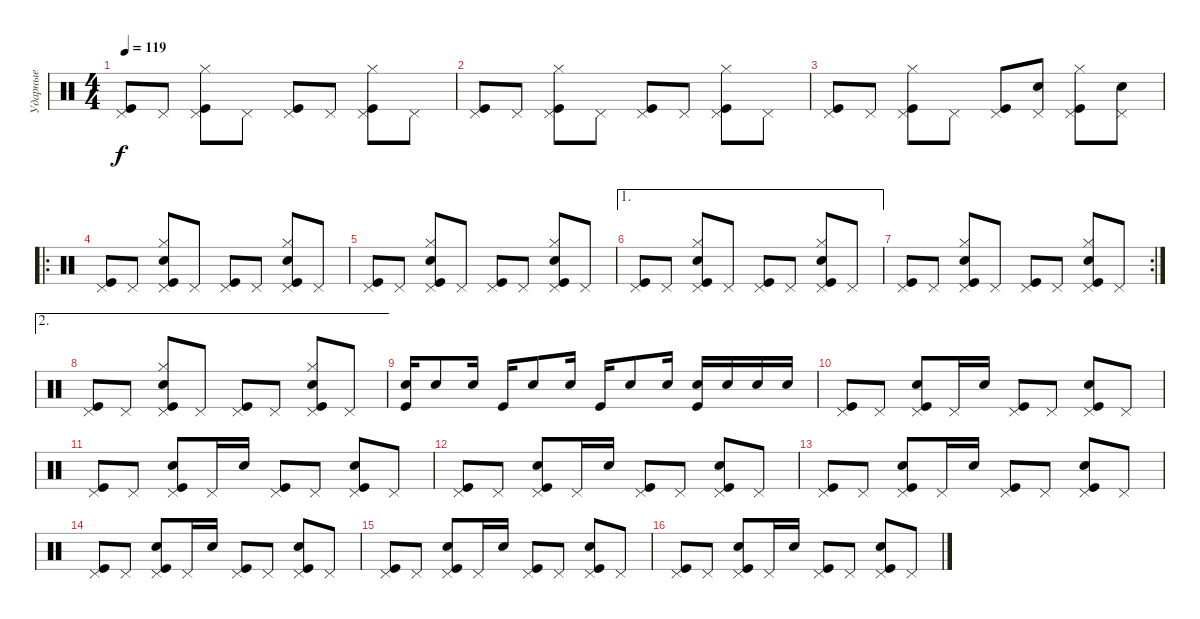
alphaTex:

\track ("Ударные" "Ударные") {instrument percussion}
\staff {score}
\articulation defaults
\ts (4 4)
\tempo 119
\clef neutral
\ks c
("Kick (hit)" "Pedal Hi-Hat (hit)").8{dy f} "Pedal Hi-Hat (hit)".8 ("Kick (hit)" "Pedal Hi-Hat (hit)" "Hi-Hat (closed)").8 "Pedal Hi-Hat (hit)".8 ("Kick (hit)" "Pedal Hi-Hat (hit)").8 "Pedal Hi-Hat (hit)".8 ("Kick (hit)" "Pedal Hi-Hat (hit)" "Hi-Hat (closed)").8 "Pedal Hi-Hat (hit)".8 |
("Kick (hit)" "Pedal Hi-Hat (hit)").8 "Pedal Hi-Hat (hit)".8 ("Kick (hit)" "Pedal Hi-Hat (hit)" "Hi-Hat (closed)").8 "Pedal Hi-Hat (hit)".8 ("Kick (hit)" "Pedal Hi-Hat (hit)").8 "Pedal Hi-Hat (hit)".8 ("Kick (hit)" "Pedal Hi-Hat (hit)" "Hi-Hat (closed)").8 "Pedal Hi-Hat (hit)".8 |
("Kick (hit)" "Pedal Hi-Hat (hit)").8 "Pedal Hi-Hat (hit)".8 ("Kick (hit)" "Pedal Hi-Hat (hit)" "Hi-Hat (closed)").8 "Pedal Hi-Hat (hit)".8 ("Kick (hit)" "Pedal Hi-Hat (hit)").8 ("Pedal Hi-Hat (hit)" "Electric Snare (hit)").8 ("Kick (hit)" "Pedal Hi-Hat (hit)" "Hi-Hat (closed)").8 ("Pedal Hi-Hat (hit)" "Electric Snare (hit)").8 |
\ro
("Kick (hit)" "Pedal Hi-Hat (hit)").8 "Pedal Hi-Hat (hit)".8 ("Kick (hit)" "Pedal Hi-Hat (hit)" "Electric Snare (hit)" "Hi-Hat (closed)").8 "Pedal Hi-Hat (hit)".8 ("Kick (hit)" "Pedal Hi-Hat (hit)").8 "Pedal Hi-Hat (hit)".8 ("Kick (hit)" "Pedal Hi-Hat (hit)" "Electric Snare (hit)" "Hi-Hat (closed)").8 "Pedal Hi-Hat (hit)".8 |
("Kick (hit)" "Pedal Hi-Hat (hit)").8 "Pedal Hi-Hat (hit)".8 ("Kick (hit)" "Pedal Hi-Hat (hit)" "Electric Snare (hit)" "Hi-Hat (closed)").8 "Pedal Hi-Hat (hit)".8 ("Kick (hit)" "Pedal Hi-Hat (hit)").8 "Pedal Hi-Hat (hit)".8 ("Kick (hit)" "Pedal Hi-Hat (hit)" "Electric Snare (hit)" "Hi-Hat (closed)").8 "Pedal Hi-Hat (hit)".8 |
\ae 1
("Kick (hit)" "Pedal Hi-Hat (hit)").8 "Pedal Hi-Hat (hit)".8 ("Kick (hit)" "Pedal Hi-Hat (hit)" "Electric Snare (hit)" "Hi-Hat (closed)").8 "Pedal Hi-Hat (hit)".8 ("Kick (hit)" "Pedal Hi-Hat (hit)").8 "Pedal Hi-Hat (hit)".8 ("Kick (hit)" "Pedal Hi-Hat (hit)" "Electric Snare (hit)" "Hi-Hat (closed)").8 "Pedal Hi-Hat (hit)".8 |
\rc 2
("Kick (hit)" "Pedal Hi-Hat (hit)").8 "Pedal Hi-Hat (hit)".8 ("Kick (hit)" "Pedal Hi-Hat (hit)" "Electric Snare (hit)" "Hi-Hat (closed)").8 "Pedal Hi-Hat (hit)".8 ("Kick (hit)" "Pedal Hi-Hat (hit)").8 "Pedal Hi-Hat (hit)".8 ("Kick (hit)" "Pedal Hi-Hat (hit)" "Electric Snare (hit)" "Hi-Hat (closed)").8 "Pedal Hi-Hat (hit)".8 |
\ae 2
("Kick (hit)" "Pedal Hi-Hat (hit)").8 "Pedal Hi-Hat (hit)".8 ("Kick (hit)" "Pedal Hi-Hat (hit)" "Electric Snare (hit)" "Hi-Hat (closed)").8 "Pedal Hi-Hat (hit)".8 ("Kick (hit)" "Pedal Hi-Hat (hit)").8 "Pedal Hi-Hat (hit)".8 ("Kick (hit)" "Pedal Hi-Hat (hit)" "Electric Snare (hit)" "Hi-Hat (closed)").8 "Pedal Hi-Hat (hit)".8 |
("Kick (hit)" "Electric Snare (hit)").16 "Electric Snare (hit)".8 "Electric Snare (hit)".16 "Kick (hit)".16 "Electric Snare (hit)".8 "Electric Snare (hit)".16 "Kick (hit)".16 "Electric Snare (hit)".8 "Electric Snare (hit)".16 ("Kick (hit)" "Electric Snare (hit)").16 "Electric Snare (hit)".16 "Electric Snare (hit)".16 "Electric Snare (hit)".16 |
("Kick (hit)" "Pedal Hi-Hat (hit)").8 "Pedal Hi-Hat (hit)".8 ("Kick (hit)" "Electric Snare (hit)" "Pedal Hi-Hat (hit)").8 "Pedal Hi-Hat (hit)".16 "Electric Snare (hit)".16 ("Kick (hit)" "Pedal Hi-Hat (hit)").8 "Pedal Hi-Hat (hit)".8 ("Kick (hit)" "Electric Snare (hit)" "Pedal Hi-Hat (hit)").8 "Pedal Hi-Hat (hit)".8 |
("Kick (hit)" "Pedal Hi-Hat (hit)").8 "Pedal Hi-Hat (hit)".8 ("Kick (hit)" "Electric Snare (hit)" "Pedal Hi-Hat (hit)").8 "Pedal Hi-Hat (hit)".16 "Electric Snare (hit)".16 ("Kick (hit)" "Pedal Hi-Hat (hit)").8 "Pedal Hi-Hat (hit)".8 ("Kick (hit)" "Electric Snare (hit)" "Pedal Hi-Hat (hit)").8 "Pedal Hi-Hat (hit)".8 |
("Kick (hit)" "Pedal Hi-Hat (hit)").8 "Pedal Hi-Hat (hit)".8 ("Kick (hit)" "Electric Snare (hit)" "Pedal Hi-Hat (hit)").8 "Pedal Hi-Hat (hit)".16 "Electric Snare (hit)".16 ("Kick (hit)" "Pedal Hi-Hat (hit)").8 "Pedal Hi-Hat (hit)".8 ("Kick (hit)" "Electric Snare (hit)" "Pedal Hi-Hat (hit)").8 "Pedal Hi-Hat (hit)".8 |
("Kick (hit)" "Pedal Hi-Hat (hit)").8 "Pedal Hi-Hat (hit)".8 ("Kick (hit)" "Electric Snare (hit)" "Pedal Hi-Hat (hit)").8 "Pedal Hi-Hat (hit)".16 "Electric Snare (hit)".16 ("Kick (hit)" "Pedal Hi-Hat (hit)").8 "Pedal Hi-Hat (hit)".8 ("Kick (hit)" "Electric Snare (hit)" "Pedal Hi-Hat (hit)").8 "Pedal Hi-Hat (hit)".8 |
("Kick (hit)" "Pedal Hi-Hat (hit)").8 "Pedal Hi-Hat (hit)".8 ("Kick (hit)" "Electric Snare (hit)" "Pedal Hi-Hat (hit)").8 "Pedal Hi-Hat (hit)".16 "Electric Snare (hit)".16 ("Kick (hit)" "Pedal Hi-Hat (hit)").8 "Pedal Hi-Hat (hit)".8 ("Kick (hit)" "Electric Snare (hit)" "Pedal Hi-Hat (hit)").8 "Pedal Hi-Hat (hit)".8 |
("Kick (hit)" "Pedal Hi-Hat (hit)").8 "Pedal Hi-Hat (hit)".8 ("Kick (hit)" "Electric Snare (hit)" "Pedal Hi-Hat (hit)").8 "Pedal Hi-Hat (hit)".16 "Electric Snare (hit)".16 ("Kick (hit)" "Pedal Hi-Hat (hit)").8 "Pedal Hi-Hat (hit)".8 ("Kick (hit)" "Electric Snare (hit)" "Pedal Hi-Hat (hit)").8 "Pedal Hi-Hat (hit)".8 |
("Kick (hit)" "Pedal Hi-Hat (hit)").8 "Pedal Hi-Hat (hit)".8 ("Kick (hit)" "Electric Snare (hit)" "Pedal Hi-Hat (hit)").8 "Pedal Hi-Hat (hit)".16 "Electric Snare (hit)".16 ("Kick (hit)" "Pedal Hi-Hat (hit)").8 "Pedal Hi-Hat (hit)".8 ("Kick (hit)" "Electric Snare (hit)" "Pedal Hi-Hat (hit)").8 "Pedal Hi-Hat (hit)".8
